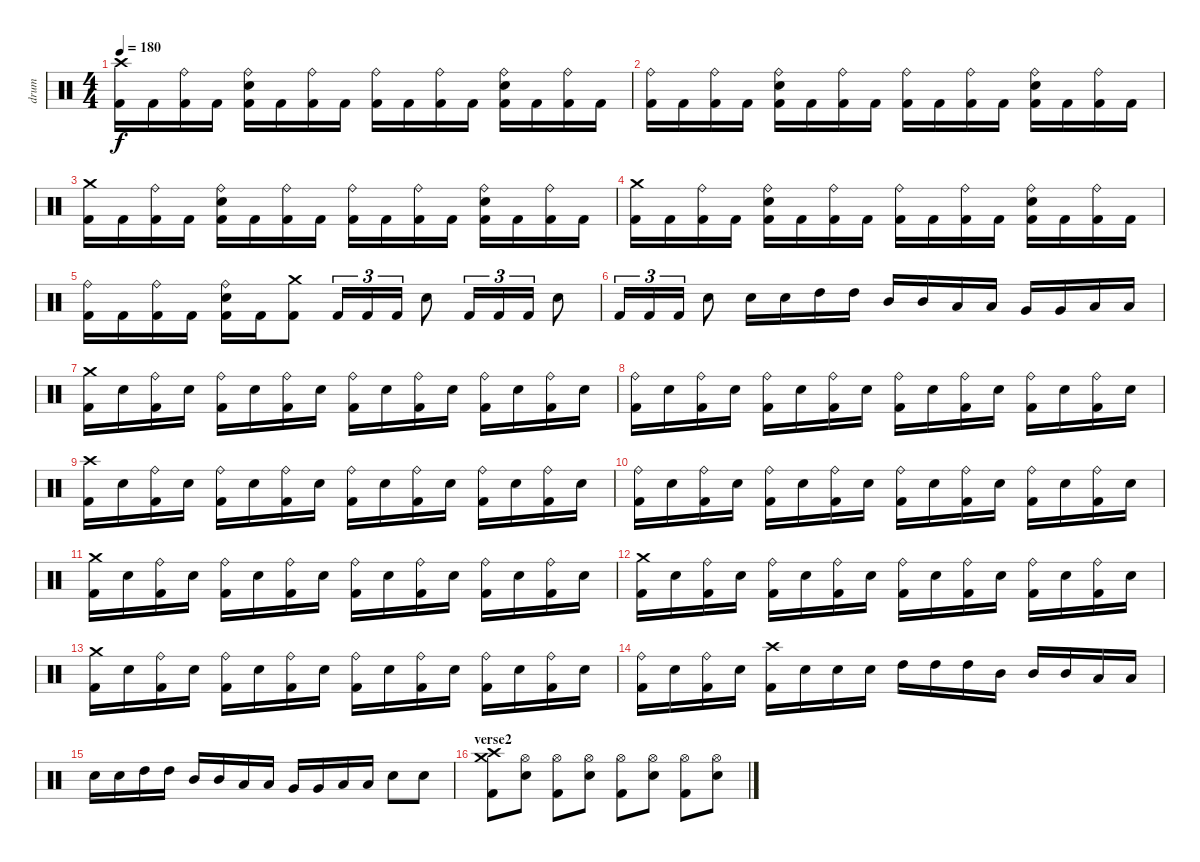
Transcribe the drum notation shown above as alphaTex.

\track ("drum" "drum") {instrument percussion}
\staff {score}
\articulation defaults
\ts (4 4)
\tempo 180
\clef neutral
\ks c
("Crash high (hit)" "Kick (hit) 2").16{dy f} "Kick (hit) 2".16 ("Ride (bell)" "Kick (hit) 2").16 "Kick (hit) 2".16 ("Ride (bell)" "Electric Snare (hit)" "Kick (hit) 2").16 "Kick (hit) 2".16 ("Ride (bell)" "Kick (hit) 2").16 "Kick (hit) 2".16 ("Ride (bell)" "Kick (hit) 2").16 "Kick (hit) 2".16 ("Ride (bell)" "Kick (hit) 2").16 "Kick (hit) 2".16 ("Ride (bell)" "Electric Snare (hit)" "Kick (hit) 2").16 "Kick (hit) 2".16 ("Ride (bell)" "Kick (hit) 2").16 "Kick (hit) 2".16 |
("Ride (bell)" "Kick (hit) 2").16 "Kick (hit) 2".16 ("Ride (bell)" "Kick (hit) 2").16 "Kick (hit) 2".16 ("Ride (bell)" "Electric Snare (hit)" "Kick (hit) 2").16 "Kick (hit) 2".16 ("Ride (bell)" "Kick (hit) 2").16 "Kick (hit) 2".16 ("Ride (bell)" "Kick (hit) 2").16 "Kick (hit) 2".16 ("Ride (bell)" "Kick (hit) 2").16 "Kick (hit) 2".16 ("Ride (bell)" "Electric Snare (hit)" "Kick (hit) 2").16 "Kick (hit) 2".16 ("Ride (bell)" "Kick (hit) 2").16 "Kick (hit) 2".16 |
("Crash medium (hit)" "Kick (hit) 2").16 "Kick (hit) 2".16 ("Ride (bell)" "Kick (hit) 2").16 "Kick (hit) 2".16 ("Ride (bell)" "Electric Snare (hit)" "Kick (hit) 2").16 "Kick (hit) 2".16 ("Ride (bell)" "Kick (hit) 2").16 "Kick (hit) 2".16 ("Ride (bell)" "Kick (hit) 2").16 "Kick (hit) 2".16 ("Ride (bell)" "Kick (hit) 2").16 "Kick (hit) 2".16 ("Ride (bell)" "Electric Snare (hit)" "Kick (hit) 2").16 "Kick (hit) 2".16 ("Ride (bell)" "Kick (hit) 2").16 "Kick (hit) 2".16 |
("Crash medium (hit)" "Kick (hit) 2").16 "Kick (hit) 2".16 ("Ride (bell)" "Kick (hit) 2").16 "Kick (hit) 2".16 ("Ride (bell)" "Electric Snare (hit)" "Kick (hit) 2").16 "Kick (hit) 2".16 ("Ride (bell)" "Kick (hit) 2").16 "Kick (hit) 2".16 ("Ride (bell)" "Kick (hit) 2").16 "Kick (hit) 2".16 ("Ride (bell)" "Kick (hit) 2").16 "Kick (hit) 2".16 ("Ride (bell)" "Electric Snare (hit)" "Kick (hit) 2").16 "Kick (hit) 2".16 ("Ride (bell)" "Kick (hit) 2").16 "Kick (hit) 2".16 |
("Ride (bell)" "Kick (hit) 2").16 "Kick (hit) 2".16 ("Ride (bell)" "Kick (hit) 2").16 "Kick (hit) 2".16 ("Ride (bell)" "Electric Snare (hit)" "Kick (hit) 2").16 "Kick (hit) 2".16 ("Crash medium (hit)" "Kick (hit) 2").8 "Kick (hit) 2".16{tu (3 2)} "Kick (hit) 2".16{tu (3 2)} "Kick (hit) 2".16{tu (3 2)} "Electric Snare (hit)".8 "Kick (hit) 2".16{tu (3 2)} "Kick (hit) 2".16{tu (3 2)} "Kick (hit) 2".16{tu (3 2)} "Electric Snare (hit)".8 |
"Kick (hit) 2".16{tu (3 2)} "Kick (hit) 2".16{tu (3 2)} "Kick (hit) 2".16{tu (3 2)} "Electric Snare (hit)".8 "Electric Snare (hit)".16 "Electric Snare (hit)".16 "High Tom (hit)".16 "High Tom (hit)".16 "Mid Tom (hit)".16 "Mid Tom (hit)".16 "Low Tom (hit)".16 "Low Tom (hit)".16 "Very Low Tom (hit)".16 "Very Low Tom (hit)".16 "Low Floor Tom (hit)".16 "Low Floor Tom (hit)".16 |
("Crash medium (hit)" "Kick (hit) 2").16 "Electric Snare (hit)".16 ("Ride (bell)" "Kick (hit) 2").16 "Electric Snare (hit)".16 ("Ride (bell)" "Kick (hit) 2").16 "Electric Snare (hit)".16 ("Ride (bell)" "Kick (hit) 2").16 "Electric Snare (hit)".16 ("Ride (bell)" "Kick (hit) 2").16 "Electric Snare (hit)".16 ("Ride (bell)" "Kick (hit) 2").16 "Electric Snare (hit)".16 ("Ride (bell)" "Kick (hit) 2").16 "Electric Snare (hit)".16 ("Ride (bell)" "Kick (hit) 2").16 "Electric Snare (hit)".16 |
("Ride (bell)" "Kick (hit) 2").16 "Electric Snare (hit)".16 ("Ride (bell)" "Kick (hit) 2").16 "Electric Snare (hit)".16 ("Ride (bell)" "Kick (hit) 2").16 "Electric Snare (hit)".16 ("Ride (bell)" "Kick (hit) 2").16 "Electric Snare (hit)".16 ("Ride (bell)" "Kick (hit) 2").16 "Electric Snare (hit)".16 ("Ride (bell)" "Kick (hit) 2").16 "Electric Snare (hit)".16 ("Ride (bell)" "Kick (hit) 2").16 "Electric Snare (hit)".16 ("Ride (bell)" "Kick (hit) 2").16 "Electric Snare (hit)".16 |
("Crash high (hit)" "Kick (hit) 2").16 "Electric Snare (hit)".16 ("Ride (bell)" "Kick (hit) 2").16 "Electric Snare (hit)".16 ("Ride (bell)" "Kick (hit) 2").16 "Electric Snare (hit)".16 ("Ride (bell)" "Kick (hit) 2").16 "Electric Snare (hit)".16 ("Ride (bell)" "Kick (hit) 2").16 "Electric Snare (hit)".16 ("Ride (bell)" "Kick (hit) 2").16 "Electric Snare (hit)".16 ("Ride (bell)" "Kick (hit) 2").16 "Electric Snare (hit)".16 ("Ride (bell)" "Kick (hit) 2").16 "Electric Snare (hit)".16 |
("Ride (bell)" "Kick (hit) 2").16 "Electric Snare (hit)".16 ("Ride (bell)" "Kick (hit) 2").16 "Electric Snare (hit)".16 ("Ride (bell)" "Kick (hit) 2").16 "Electric Snare (hit)".16 ("Ride (bell)" "Kick (hit) 2").16 "Electric Snare (hit)".16 ("Ride (bell)" "Kick (hit) 2").16 "Electric Snare (hit)".16 ("Ride (bell)" "Kick (hit) 2").16 "Electric Snare (hit)".16 ("Ride (bell)" "Kick (hit) 2").16 "Electric Snare (hit)".16 ("Ride (bell)" "Kick (hit) 2").16 "Electric Snare (hit)".16 |
("Crash medium (hit)" "Kick (hit) 2").16 "Electric Snare (hit)".16 ("Ride (bell)" "Kick (hit) 2").16 "Electric Snare (hit)".16 ("Ride (bell)" "Kick (hit) 2").16 "Electric Snare (hit)".16 ("Ride (bell)" "Kick (hit) 2").16 "Electric Snare (hit)".16 ("Ride (bell)" "Kick (hit) 2").16 "Electric Snare (hit)".16 ("Ride (bell)" "Kick (hit) 2").16 "Electric Snare (hit)".16 ("Ride (bell)" "Kick (hit) 2").16 "Electric Snare (hit)".16 ("Ride (bell)" "Kick (hit) 2").16 "Electric Snare (hit)".16 |
("Crash medium (hit)" "Kick (hit) 2").16 "Electric Snare (hit)".16 ("Ride (bell)" "Kick (hit) 2").16 "Electric Snare (hit)".16 ("Ride (bell)" "Kick (hit) 2").16 "Electric Snare (hit)".16 ("Ride (bell)" "Kick (hit) 2").16 "Electric Snare (hit)".16 ("Ride (bell)" "Kick (hit) 2").16 "Electric Snare (hit)".16 ("Ride (bell)" "Kick (hit) 2").16 "Electric Snare (hit)".16 ("Ride (bell)" "Kick (hit) 2").16 "Electric Snare (hit)".16 ("Ride (bell)" "Kick (hit) 2").16 "Electric Snare (hit)".16 |
("Crash medium (hit)" "Kick (hit) 2").16 "Electric Snare (hit)".16 ("Ride (bell)" "Kick (hit) 2").16 "Electric Snare (hit)".16 ("Ride (bell)" "Kick (hit) 2").16 "Electric Snare (hit)".16 ("Ride (bell)" "Kick (hit) 2").16 "Electric Snare (hit)".16 ("Ride (bell)" "Kick (hit) 2").16 "Electric Snare (hit)".16 ("Ride (bell)" "Kick (hit) 2").16 "Electric Snare (hit)".16 ("Ride (bell)" "Kick (hit) 2").16 "Electric Snare (hit)".16 ("Ride (bell)" "Kick (hit) 2").16 "Electric Snare (hit)".16 |
("Ride (bell)" "Kick (hit) 2").16 "Electric Snare (hit)".16 ("Ride (bell)" "Kick (hit) 2").16 "Electric Snare (hit)".16 ("Crash high (hit)" "Kick (hit) 2").16 "Electric Snare (hit)".16 "Electric Snare (hit)".16 "Electric Snare (hit)".16 "High Tom (hit)".16 "High Tom (hit)".16 "High Tom (hit)".16 "Mid Tom (hit)".16 "Mid Tom (hit)".16 "Mid Tom (hit)".16 "Low Tom (hit)".16 "Low Tom (hit)".16 |
"Electric Snare (hit)".16 "Electric Snare (hit)".16 "High Tom (hit)".16 "High Tom (hit)".16 "Mid Tom (hit)".16 "Mid Tom (hit)".16 "Low Tom (hit)".16 "Low Tom (hit)".16 "Very Low Tom (hit)".16 "Very Low Tom (hit)".16 "Low Floor Tom (hit)".16 "Low Floor Tom (hit)".16 "Electric Snare (hit)".8 "Electric Snare (hit)".8 |
\section ("" "verse2")
("Crash high (hit)" "Crash medium (hit)" "Kick (hit) 2").8 ("Hi-Hat (open)" "Electric Snare (hit)").8 ("Hi-Hat (open)" "Kick (hit) 2").8 ("Hi-Hat (open)" "Electric Snare (hit)").8 ("Hi-Hat (open)" "Kick (hit) 2").8 ("Hi-Hat (open)" "Electric Snare (hit)").8 ("Hi-Hat (open)" "Kick (hit) 2").8 ("Hi-Hat (open)" "Electric Snare (hit)").8
